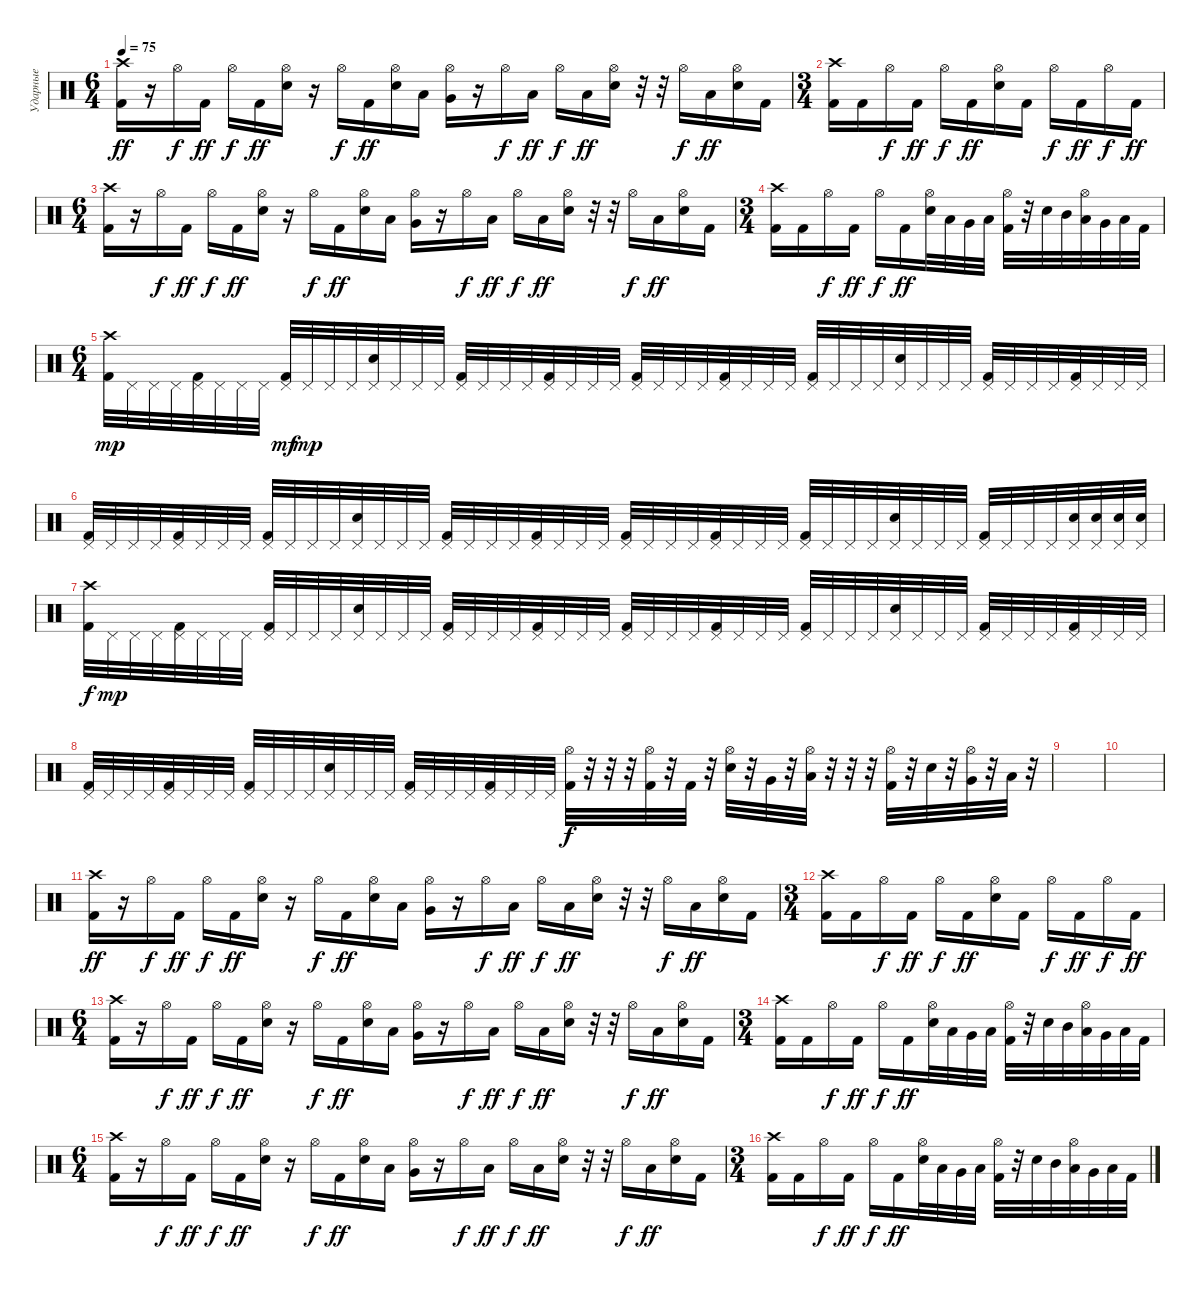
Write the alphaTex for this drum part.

\track ("Ударные" "Ударные") {instrument percussion}
\staff {score}
\articulation defaults
\ts (6 4)
\tempo 75
\clef neutral
\ks c
("Crash high (hit)" "Kick (hit) 2").16{dy ff} r.16 "Hi-Hat (open)".16{dy f} "Kick (hit) 2".16{dy ff} "Hi-Hat (open)".16{dy f} "Kick (hit) 2".16{dy ff} ("Hi-Hat (open)" "Snare (hit) 2").16 r.16 "Hi-Hat (open)".16{dy f} "Kick (hit) 2".16{dy ff} ("Hi-Hat (open)" "Snare (hit) 2").16 "Low Floor Tom (hit)".16 ("Hi-Hat (open)" "Very Low Tom (hit)").16 r.16 "Hi-Hat (open)".16{dy f} "Low Floor Tom (hit)".16{dy ff} "Hi-Hat (open)".16{dy f} "Low Floor Tom (hit)".16{dy ff} ("Hi-Hat (open)" "Snare (hit) 2").16 r.32 r.32 "Hi-Hat (open)".16{dy f} "Low Floor Tom (hit)".16{dy ff} ("Hi-Hat (open)" "Snare (hit) 2").16 "Kick (hit) 2".16 |
\ts (3 4)
("Crash high (hit)" "Kick (hit) 2").16 "Kick (hit) 2".16 "Hi-Hat (open)".16{dy f} "Kick (hit) 2".16{dy ff} "Hi-Hat (open)".16{dy f} "Kick (hit) 2".16{dy ff} ("Hi-Hat (open)" "Snare (hit) 2").16 "Kick (hit) 2".16 "Hi-Hat (open)".16{dy f} "Kick (hit) 2".16{dy ff} "Hi-Hat (open)".16{dy f} "Kick (hit) 2".16{dy ff} |
\ts (6 4)
("Crash high (hit)" "Kick (hit) 2").16 r.16 "Hi-Hat (open)".16{dy f} "Kick (hit) 2".16{dy ff} "Hi-Hat (open)".16{dy f} "Kick (hit) 2".16{dy ff} ("Hi-Hat (open)" "Snare (hit) 2").16 r.16 "Hi-Hat (open)".16{dy f} "Kick (hit) 2".16{dy ff} ("Hi-Hat (open)" "Snare (hit) 2").16 "Low Floor Tom (hit)".16 ("Hi-Hat (open)" "Very Low Tom (hit)").16 r.16 "Hi-Hat (open)".16{dy f} "Low Floor Tom (hit)".16{dy ff} "Hi-Hat (open)".16{dy f} "Low Floor Tom (hit)".16{dy ff} ("Hi-Hat (open)" "Snare (hit) 2").16 r.32 r.32 "Hi-Hat (open)".16{dy f} "Low Floor Tom (hit)".16{dy ff} ("Hi-Hat (open)" "Snare (hit) 2").16 "Kick (hit) 2".16 |
\ts (3 4)
("Crash high (hit)" "Kick (hit) 2").16 "Kick (hit) 2".16 "Hi-Hat (open)".16{dy f} "Kick (hit) 2".16{dy ff} "Hi-Hat (open)".16{dy f} "Kick (hit) 2".16{dy ff} ("Hi-Hat (open)" "Snare (hit) 2").32 "Low Tom (hit)".32 "Very Low Tom (hit)".32 "Low Floor Tom (hit)".32 ("Hi-Hat (open)" "Kick (hit) 2").32 r.32 "Snare (hit) 2".32 "Mid Tom (hit)".32 ("Hi-Hat (open)" "Low Tom (hit)").32 "Very Low Tom (hit)".32 "Low Floor Tom (hit)".32 "Kick (hit) 2".32 |
\ts (6 4)
("Crash high (hit)" "Kick (hit) 2").32{dy mp} "Pedal Hi-Hat (hit)".32 "Pedal Hi-Hat (hit)".32 "Pedal Hi-Hat (hit)".32 ("Pedal Hi-Hat (hit)" "Kick (hit) 2").32 "Pedal Hi-Hat (hit)".32 "Pedal Hi-Hat (hit)".32 "Pedal Hi-Hat (hit)".32 ("Pedal Hi-Hat (hit)" "Kick (hit) 2").32{dy mf} "Pedal Hi-Hat (hit)".32{dy mp} "Pedal Hi-Hat (hit)".32 "Pedal Hi-Hat (hit)".32 ("Pedal Hi-Hat (hit)" "Snare (hit) 2").32 "Pedal Hi-Hat (hit)".32 "Pedal Hi-Hat (hit)".32 "Pedal Hi-Hat (hit)".32 ("Pedal Hi-Hat (hit)" "Kick (hit) 2").32 "Pedal Hi-Hat (hit)".32 "Pedal Hi-Hat (hit)".32 "Pedal Hi-Hat (hit)".32 ("Pedal Hi-Hat (hit)" "Kick (hit) 2").32 "Pedal Hi-Hat (hit)".32 "Pedal Hi-Hat (hit)".32 "Pedal Hi-Hat (hit)".32 ("Pedal Hi-Hat (hit)" "Kick (hit) 2").32 "Pedal Hi-Hat (hit)".32 "Pedal Hi-Hat (hit)".32 "Pedal Hi-Hat (hit)".32 ("Pedal Hi-Hat (hit)" "Kick (hit) 2").32 "Pedal Hi-Hat (hit)".32 "Pedal Hi-Hat (hit)".32 "Pedal Hi-Hat (hit)".32 ("Pedal Hi-Hat (hit)" "Kick (hit) 2").32 "Pedal Hi-Hat (hit)".32 "Pedal Hi-Hat (hit)".32 "Pedal Hi-Hat (hit)".32 ("Pedal Hi-Hat (hit)" "Snare (hit) 2").32 "Pedal Hi-Hat (hit)".32 "Pedal Hi-Hat (hit)".32 "Pedal Hi-Hat (hit)".32 ("Pedal Hi-Hat (hit)" "Kick (hit) 2").32 "Pedal Hi-Hat (hit)".32 "Pedal Hi-Hat (hit)".32 "Pedal Hi-Hat (hit)".32 ("Pedal Hi-Hat (hit)" "Kick (hit) 2").32 "Pedal Hi-Hat (hit)".32 "Pedal Hi-Hat (hit)".32 "Pedal Hi-Hat (hit)".32 |
("Pedal Hi-Hat (hit)" "Kick (hit) 2").32 "Pedal Hi-Hat (hit)".32 "Pedal Hi-Hat (hit)".32 "Pedal Hi-Hat (hit)".32 ("Pedal Hi-Hat (hit)" "Kick (hit) 2").32 "Pedal Hi-Hat (hit)".32 "Pedal Hi-Hat (hit)".32 "Pedal Hi-Hat (hit)".32 ("Pedal Hi-Hat (hit)" "Kick (hit) 2").32 "Pedal Hi-Hat (hit)".32 "Pedal Hi-Hat (hit)".32 "Pedal Hi-Hat (hit)".32 ("Pedal Hi-Hat (hit)" "Snare (hit) 2").32 "Pedal Hi-Hat (hit)".32 "Pedal Hi-Hat (hit)".32 "Pedal Hi-Hat (hit)".32 ("Pedal Hi-Hat (hit)" "Kick (hit) 2").32 "Pedal Hi-Hat (hit)".32 "Pedal Hi-Hat (hit)".32 "Pedal Hi-Hat (hit)".32 ("Pedal Hi-Hat (hit)" "Kick (hit) 2").32 "Pedal Hi-Hat (hit)".32 "Pedal Hi-Hat (hit)".32 "Pedal Hi-Hat (hit)".32 ("Pedal Hi-Hat (hit)" "Kick (hit) 2").32 "Pedal Hi-Hat (hit)".32 "Pedal Hi-Hat (hit)".32 "Pedal Hi-Hat (hit)".32 ("Pedal Hi-Hat (hit)" "Kick (hit) 2").32 "Pedal Hi-Hat (hit)".32 "Pedal Hi-Hat (hit)".32 "Pedal Hi-Hat (hit)".32 ("Pedal Hi-Hat (hit)" "Kick (hit) 2").32 "Pedal Hi-Hat (hit)".32 "Pedal Hi-Hat (hit)".32 "Pedal Hi-Hat (hit)".32 ("Pedal Hi-Hat (hit)" "Snare (hit) 2").32 "Pedal Hi-Hat (hit)".32 "Pedal Hi-Hat (hit)".32 "Pedal Hi-Hat (hit)".32 ("Pedal Hi-Hat (hit)" "Kick (hit) 2").32 "Pedal Hi-Hat (hit)".32 "Pedal Hi-Hat (hit)".32 "Pedal Hi-Hat (hit)".32 ("Pedal Hi-Hat (hit)" "Snare (hit) 2").32 ("Pedal Hi-Hat (hit)" "Snare (hit) 2").32 ("Pedal Hi-Hat (hit)" "Snare (hit) 2").32 ("Pedal Hi-Hat (hit)" "Snare (hit) 2").32 |
("Crash high (hit)" "Kick (hit) 2").32{dy f} "Pedal Hi-Hat (hit)".32{dy mp} "Pedal Hi-Hat (hit)".32 "Pedal Hi-Hat (hit)".32 ("Pedal Hi-Hat (hit)" "Kick (hit) 2").32 "Pedal Hi-Hat (hit)".32 "Pedal Hi-Hat (hit)".32 "Pedal Hi-Hat (hit)".32 ("Pedal Hi-Hat (hit)" "Kick (hit) 2").32 "Pedal Hi-Hat (hit)".32 "Pedal Hi-Hat (hit)".32 "Pedal Hi-Hat (hit)".32 ("Pedal Hi-Hat (hit)" "Snare (hit) 2").32 "Pedal Hi-Hat (hit)".32 "Pedal Hi-Hat (hit)".32 "Pedal Hi-Hat (hit)".32 ("Pedal Hi-Hat (hit)" "Kick (hit) 2").32 "Pedal Hi-Hat (hit)".32 "Pedal Hi-Hat (hit)".32 "Pedal Hi-Hat (hit)".32 ("Pedal Hi-Hat (hit)" "Kick (hit) 2").32 "Pedal Hi-Hat (hit)".32 "Pedal Hi-Hat (hit)".32 "Pedal Hi-Hat (hit)".32 ("Pedal Hi-Hat (hit)" "Kick (hit) 2").32 "Pedal Hi-Hat (hit)".32 "Pedal Hi-Hat (hit)".32 "Pedal Hi-Hat (hit)".32 ("Pedal Hi-Hat (hit)" "Kick (hit) 2").32 "Pedal Hi-Hat (hit)".32 "Pedal Hi-Hat (hit)".32 "Pedal Hi-Hat (hit)".32 ("Pedal Hi-Hat (hit)" "Kick (hit) 2").32 "Pedal Hi-Hat (hit)".32 "Pedal Hi-Hat (hit)".32 "Pedal Hi-Hat (hit)".32 ("Pedal Hi-Hat (hit)" "Snare (hit) 2").32 "Pedal Hi-Hat (hit)".32 "Pedal Hi-Hat (hit)".32 "Pedal Hi-Hat (hit)".32 ("Pedal Hi-Hat (hit)" "Kick (hit) 2").32 "Pedal Hi-Hat (hit)".32 "Pedal Hi-Hat (hit)".32 "Pedal Hi-Hat (hit)".32 ("Pedal Hi-Hat (hit)" "Kick (hit) 2").32 "Pedal Hi-Hat (hit)".32 "Pedal Hi-Hat (hit)".32 "Pedal Hi-Hat (hit)".32 |
("Pedal Hi-Hat (hit)" "Kick (hit) 2").32 "Pedal Hi-Hat (hit)".32 "Pedal Hi-Hat (hit)".32 "Pedal Hi-Hat (hit)".32 ("Pedal Hi-Hat (hit)" "Kick (hit) 2").32 "Pedal Hi-Hat (hit)".32 "Pedal Hi-Hat (hit)".32 "Pedal Hi-Hat (hit)".32 ("Pedal Hi-Hat (hit)" "Kick (hit) 2").32 "Pedal Hi-Hat (hit)".32 "Pedal Hi-Hat (hit)".32 "Pedal Hi-Hat (hit)".32 ("Pedal Hi-Hat (hit)" "Snare (hit) 2").32 "Pedal Hi-Hat (hit)".32 "Pedal Hi-Hat (hit)".32 "Pedal Hi-Hat (hit)".32 ("Pedal Hi-Hat (hit)" "Kick (hit) 2").32 "Pedal Hi-Hat (hit)".32 "Pedal Hi-Hat (hit)".32 "Pedal Hi-Hat (hit)".32 ("Pedal Hi-Hat (hit)" "Kick (hit) 2").32 "Pedal Hi-Hat (hit)".32 "Pedal Hi-Hat (hit)".32 "Pedal Hi-Hat (hit)".32 ("Hi-Hat (open)" "Kick (hit) 2").32{dy f} r.32 r.32 r.32 ("Hi-Hat (open)" "Kick (hit) 2").32 r.32 "Kick (hit) 2".32 r.32 ("Hi-Hat (open)" "Snare (hit) 2").32 r.32 "Very Low Tom (hit)".32 r.32 ("Hi-Hat (open)" "Low Floor Tom (hit)").32 r.32 r.32 r.32 ("Hi-Hat (open)" "Kick (hit) 2").32 r.32 "Snare (hit) 2".32 r.32 ("Hi-Hat (open)" "Very Low Tom (hit)").32 r.32 "Low Floor Tom (hit)".32 r.32 |
|
|
("Crash high (hit)" "Kick (hit) 2").16{dy ff} r.16 "Hi-Hat (open)".16{dy f} "Kick (hit) 2".16{dy ff} "Hi-Hat (open)".16{dy f} "Kick (hit) 2".16{dy ff} ("Hi-Hat (open)" "Snare (hit) 2").16 r.16 "Hi-Hat (open)".16{dy f} "Kick (hit) 2".16{dy ff} ("Hi-Hat (open)" "Snare (hit) 2").16 "Low Floor Tom (hit)".16 ("Hi-Hat (open)" "Very Low Tom (hit)").16 r.16 "Hi-Hat (open)".16{dy f} "Low Floor Tom (hit)".16{dy ff} "Hi-Hat (open)".16{dy f} "Low Floor Tom (hit)".16{dy ff} ("Hi-Hat (open)" "Snare (hit) 2").16 r.32 r.32 "Hi-Hat (open)".16{dy f} "Low Floor Tom (hit)".16{dy ff} ("Hi-Hat (open)" "Snare (hit) 2").16 "Kick (hit) 2".16 |
\ts (3 4)
("Crash high (hit)" "Kick (hit) 2").16 "Kick (hit) 2".16 "Hi-Hat (open)".16{dy f} "Kick (hit) 2".16{dy ff} "Hi-Hat (open)".16{dy f} "Kick (hit) 2".16{dy ff} ("Hi-Hat (open)" "Snare (hit) 2").16 "Kick (hit) 2".16 "Hi-Hat (open)".16{dy f} "Kick (hit) 2".16{dy ff} "Hi-Hat (open)".16{dy f} "Kick (hit) 2".16{dy ff} |
\ts (6 4)
("Crash high (hit)" "Kick (hit) 2").16 r.16 "Hi-Hat (open)".16{dy f} "Kick (hit) 2".16{dy ff} "Hi-Hat (open)".16{dy f} "Kick (hit) 2".16{dy ff} ("Hi-Hat (open)" "Snare (hit) 2").16 r.16 "Hi-Hat (open)".16{dy f} "Kick (hit) 2".16{dy ff} ("Hi-Hat (open)" "Snare (hit) 2").16 "Low Floor Tom (hit)".16 ("Hi-Hat (open)" "Very Low Tom (hit)").16 r.16 "Hi-Hat (open)".16{dy f} "Low Floor Tom (hit)".16{dy ff} "Hi-Hat (open)".16{dy f} "Low Floor Tom (hit)".16{dy ff} ("Hi-Hat (open)" "Snare (hit) 2").16 r.32 r.32 "Hi-Hat (open)".16{dy f} "Low Floor Tom (hit)".16{dy ff} ("Hi-Hat (open)" "Snare (hit) 2").16 "Kick (hit) 2".16 |
\ts (3 4)
("Crash high (hit)" "Kick (hit) 2").16 "Kick (hit) 2".16 "Hi-Hat (open)".16{dy f} "Kick (hit) 2".16{dy ff} "Hi-Hat (open)".16{dy f} "Kick (hit) 2".16{dy ff} ("Hi-Hat (open)" "Snare (hit) 2").32 "Low Tom (hit)".32 "Very Low Tom (hit)".32 "Low Floor Tom (hit)".32 ("Hi-Hat (open)" "Kick (hit) 2").32 r.32 "Snare (hit) 2".32 "Mid Tom (hit)".32 ("Hi-Hat (open)" "Low Tom (hit)").32 "Very Low Tom (hit)".32 "Low Floor Tom (hit)".32 "Kick (hit) 2".32 |
\ts (6 4)
("Crash high (hit)" "Kick (hit) 2").16 r.16 "Hi-Hat (open)".16{dy f} "Kick (hit) 2".16{dy ff} "Hi-Hat (open)".16{dy f} "Kick (hit) 2".16{dy ff} ("Hi-Hat (open)" "Snare (hit) 2").16 r.16 "Hi-Hat (open)".16{dy f} "Kick (hit) 2".16{dy ff} ("Hi-Hat (open)" "Snare (hit) 2").16 "Low Floor Tom (hit)".16 ("Hi-Hat (open)" "Very Low Tom (hit)").16 r.16 "Hi-Hat (open)".16{dy f} "Low Floor Tom (hit)".16{dy ff} "Hi-Hat (open)".16{dy f} "Low Floor Tom (hit)".16{dy ff} ("Hi-Hat (open)" "Snare (hit) 2").16 r.32 r.32 "Hi-Hat (open)".16{dy f} "Low Floor Tom (hit)".16{dy ff} ("Hi-Hat (open)" "Snare (hit) 2").16 "Kick (hit) 2".16 |
\ts (3 4)
("Crash high (hit)" "Kick (hit) 2").16 "Kick (hit) 2".16 "Hi-Hat (open)".16{dy f} "Kick (hit) 2".16{dy ff} "Hi-Hat (open)".16{dy f} "Kick (hit) 2".16{dy ff} ("Hi-Hat (open)" "Snare (hit) 2").32 "Low Tom (hit)".32 "Very Low Tom (hit)".32 "Low Floor Tom (hit)".32 ("Hi-Hat (open)" "Kick (hit) 2").32 r.32 "Snare (hit) 2".32 "Mid Tom (hit)".32 ("Hi-Hat (open)" "Low Tom (hit)").32 "Very Low Tom (hit)".32 "Low Floor Tom (hit)".32 "Kick (hit) 2".32
